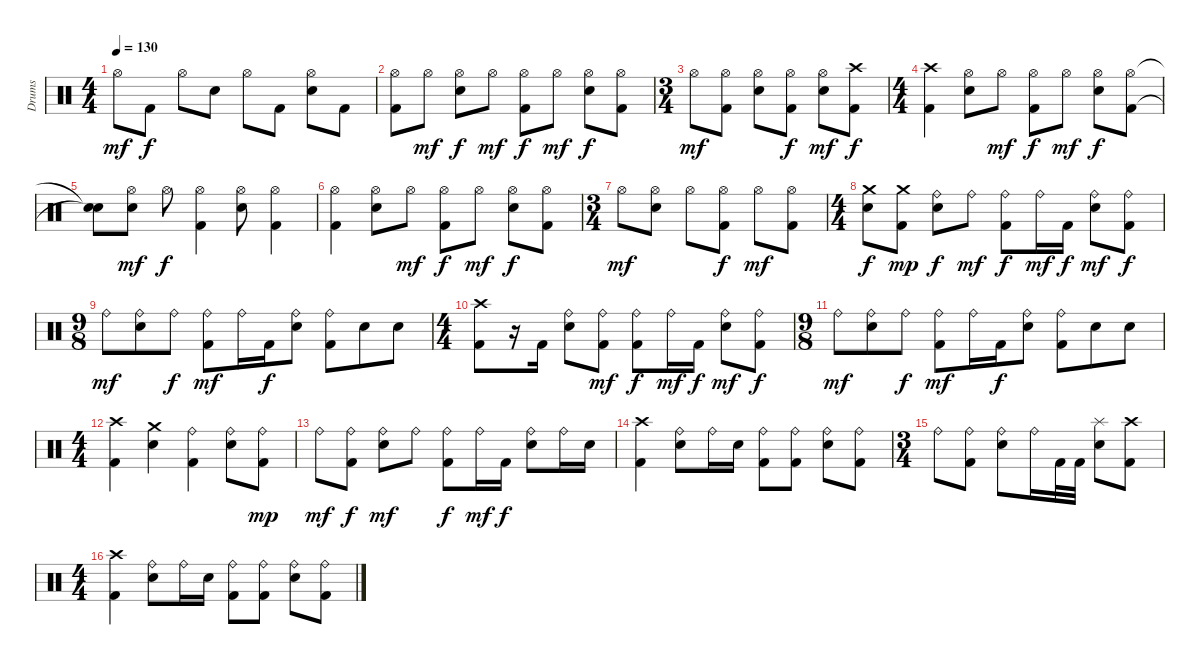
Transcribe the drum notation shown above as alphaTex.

\track ("Drums" "Drums") {instrument percussion}
\staff {score}
\articulation defaults
\ts (4 4)
\tempo 130
\clef neutral
\ks c "Hi-Hat (open)".8{dy mf} "Kick (hit) 2".8{dy f} "Hi-Hat (open)".8 "Electric Snare (hit)".8 "Hi-Hat (open)".8 "Kick (hit) 2".8
("Electric Snare (hit)" "Hi-Hat (open)").8 "Kick (hit) 2".8 |
("Kick (hit) 2" "Hi-Hat (open)").8 "Hi-Hat (open)".8{dy mf} ("Electric Snare (hit)" "Hi-Hat (open)").8{dy f} "Hi-Hat (open)".8{dy mf} ("Kick (hit) 2" "Hi-Hat (open)").8{dy f} "Hi-Hat (open)".8{dy mf} ("Electric Snare (hit)" "Hi-Hat (open)").8{dy f} ("Hi-Hat (open)" "Kick (hit) 2").8 |
\ts (3 4)
"Hi-Hat (open)".8{dy mf} ("Hi-Hat (open)" "Kick (hit) 2").8 ("Hi-Hat (open)" "Electric Snare (hit)").8 ("Hi-Hat (open)" "Kick (hit) 2").8{dy f} ("Electric Snare (hit)" "Hi-Hat (open)").8{dy mf} ("Kick (hit) 2" "Crash high (hit)").8{dy f} |
\ts (4 4)
("Kick (hit) 2" "Crash high (hit)").4 ("Electric Snare (hit)" "Hi-Hat (open)").8 "Hi-Hat (open)".8{dy mf} ("Kick (hit) 2" "Hi-Hat (open)").8{dy f} "Hi-Hat (open)".8{dy mf} ("Electric Snare (hit)" "Hi-Hat (open)").8{dy f} ("Kick (hit) 2" "Hi-Hat (open)").8 |
("Snare (hit)"{t} "Snare (hit)"{t}).8 ("Electric Snare (hit)" "Hi-Hat (open)").8{dy mf} "Hi-Hat (open)".8{dy f} ("Kick (hit) 2" "Hi-Hat (open)").4 ("Electric Snare (hit)" "Hi-Hat (open)").8 ("Hi-Hat (open)" "Kick (hit) 2").4 |
("Kick (hit) 2" "Hi-Hat (open)").4 ("Electric Snare (hit)" "Hi-Hat (open)").8 "Hi-Hat (open)".8{dy mf} ("Kick (hit) 2" "Hi-Hat (open)").8{dy f} "Hi-Hat (open)".8{dy mf} ("Electric Snare (hit)" "Hi-Hat (open)").8{dy f} ("Kick (hit) 2" "Hi-Hat (open)").8 |
\ts (3 4)
"Hi-Hat (open)".8{dy mf} ("Electric Snare (hit)" "Hi-Hat (open)").8 "Hi-Hat (open)".8 ("Hi-Hat (open)" "Kick (hit) 2").8{dy f} "Hi-Hat (open)".8{dy mf} ("Hi-Hat (open)" "Kick (hit) 2").8 |
\ts (4 4)
("Electric Snare (hit)" "Crash medium (hit)").8{dy f} ("Kick (hit) 2" "Crash medium (hit)").8{dy mp} ("Electric Snare (hit)" "Ride (bell)").8{dy f} "Ride (bell)".8{dy mf} ("Kick (hit) 2" "Ride (bell)").8{dy f} "Ride (bell)".16{dy mf} "Kick (hit) 2".16{dy f} ("Electric Snare (hit)" "Ride (bell)").8{dy mf} ("Kick (hit) 2" "Ride (bell)").8{dy f} |
\ts (9 8)
"Ride (bell)".8{dy mf} ("Electric Snare (hit)" "Ride (bell)").8 "Ride (bell)".8{dy f} ("Kick (hit) 2" "Ride (bell)").8{dy mf} "Ride (bell)".16 "Kick (hit) 2".16{dy f} ("Electric Snare (hit)" "Ride (bell)").8 ("Kick (hit) 2" "Ride (bell)").8 "Electric Snare (hit)".8 "Electric Snare (hit)".8 |
\ts (4 4)
("Crash high (hit)" "Kick (hit) 2").8 r.16 "Kick (hit) 2".16 ("Electric Snare (hit)" "Ride (bell)").8 ("Ride (bell)" "Kick (hit) 2").8{dy mf} ("Kick (hit) 2" "Ride (bell)").8{dy f} "Ride (bell)".16{dy mf} "Kick (hit) 2".16{dy f} ("Electric Snare (hit)" "Ride (bell)").8{dy mf} ("Kick (hit) 2" "Ride (bell)").8{dy f} |
\ts (9 8)
"Ride (bell)".8{dy mf} ("Electric Snare (hit)" "Ride (bell)").8 "Ride (bell)".8{dy f} ("Ride (bell)" "Kick (hit) 2").8{dy mf} "Ride (bell)".16 "Kick (hit) 2".16{dy f} ("Electric Snare (hit)" "Ride (bell)").8 ("Kick (hit) 2" "Ride (bell)").8 "Electric Snare (hit)".8 "Electric Snare (hit)".8 |
\ts (4 4)
("Crash high (hit)" "Kick (hit) 2").4 ("Crash medium (hit)" "Electric Snare (hit)").4 ("Kick (hit) 2" "Ride (bell)").4 ("Electric Snare (hit)" "Ride (bell)").8 ("Kick (hit) 2" "Ride (bell)").8{dy mp} |
"Ride (bell)".8{dy mf} ("Kick (hit) 2" "Ride (bell)").8{dy f} ("Electric Snare (hit)" "Ride (bell)").8{dy mf} "Ride (bell)".8 ("Kick (hit) 2" "Ride (bell)").8{dy f} "Ride (bell)".16{dy mf} "Kick (hit) 2".16{dy f} ("Electric Snare (hit)" "Ride (bell)").8 "Ride (bell)".16 "Electric Snare (hit)".16 |
("Kick (hit) 2" "Crash high (hit)").4 ("Electric Snare (hit)" "Ride (bell)").8 "Ride (bell)".16 "Electric Snare (hit)".16 ("Kick (hit) 2" "Ride (bell)").8 ("Kick (hit) 2" "Ride (bell)").8 ("Electric Snare (hit)" "Ride (bell)").8 ("Kick (hit) 2" "Ride (bell)").8 |
\ts (3 4)
"Ride (bell)".8 ("Kick (hit) 2" "Ride (bell)").8 ("Electric Snare (hit)" "Ride (bell)").8 "Ride (bell)".16 "Kick (hit) 2".32 "Kick (hit) 2".32 ("Electric Snare (hit)" "Splash (hit)").8 ("Kick (hit) 2" "Crash high (hit)").8 |
\ts (4 4)
("Crash high (hit)" "Kick (hit) 2").4 ("Electric Snare (hit)" "Ride (bell)").8 "Ride (bell)".16 "Electric Snare (hit)".16 ("Kick (hit) 2" "Ride (bell)").8 ("Kick (hit) 2" "Ride (bell)").8 ("Electric Snare (hit)" "Ride (bell)").8 ("Kick (hit) 2" "Ride (bell)").8
